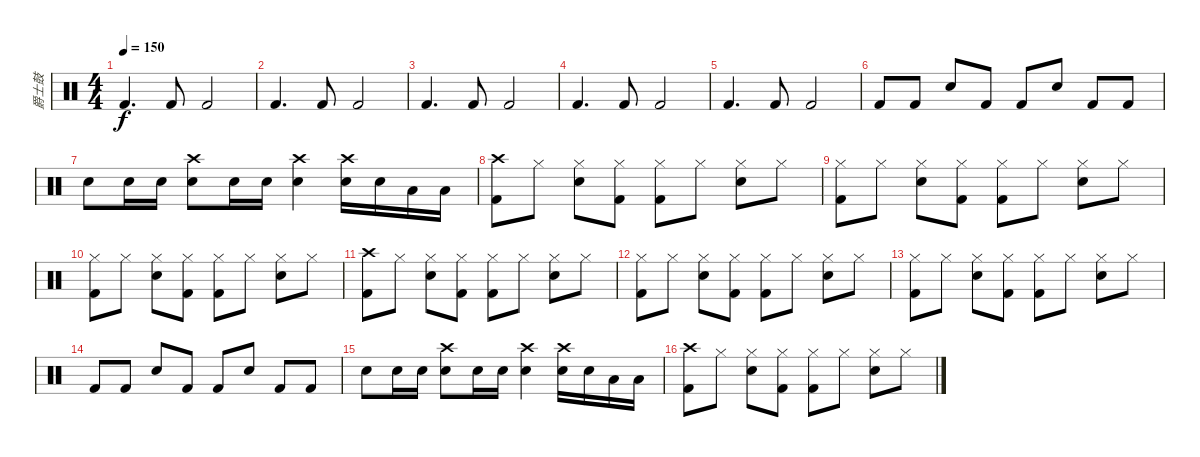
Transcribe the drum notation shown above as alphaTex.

\track ("爵士鼓" "爵士鼓") {instrument percussion}
\staff {score}
\articulation defaults
\ts (4 4)
\tempo 150
\clef neutral
\ks c "Kick (hit) 2".4{d dy f} "Kick (hit) 2".8 "Kick (hit) 2".2
|
"Kick (hit) 2".4{d} "Kick (hit) 2".8 "Kick (hit) 2".2 |
"Kick (hit) 2".4{d} "Kick (hit) 2".8 "Kick (hit) 2".2 |
"Kick (hit) 2".4{d} "Kick (hit) 2".8 "Kick (hit) 2".2 |
"Kick (hit) 2".4{d} "Kick (hit) 2".8 "Kick (hit) 2".2 |
"Kick (hit) 2".8 "Kick (hit) 2".8 "Electric Snare (hit)".8 "Kick (hit) 2".8 "Kick (hit) 2".8 "Electric Snare (hit)".8 "Kick (hit) 2".8 "Kick (hit) 2".8 |
"Electric Snare (hit)".8 "Electric Snare (hit)".16 "Electric Snare (hit)".16 ("Crash high (hit)" "Electric Snare (hit)").8 "Electric Snare (hit)".16 "Electric Snare (hit)".16 ("Crash high (hit)" "Electric Snare (hit)").4 ("Crash high (hit)" "Electric Snare (hit)").16 "Electric Snare (hit)".16 "Low Tom (hit)".16 "Low Tom (hit)".16 |
("Crash high (hit)" "Kick (hit) 2").8 "Hi-Hat (closed)".8 ("Hi-Hat (closed)" "Electric Snare (hit)").8 ("Hi-Hat (closed)" "Kick (hit) 2").8 ("Hi-Hat (closed)" "Kick (hit) 2").8 "Hi-Hat (closed)".8 ("Hi-Hat (closed)" "Electric Snare (hit)").8 "Hi-Hat (closed)".8 |
("Hi-Hat (closed)" "Kick (hit) 2").8 "Hi-Hat (closed)".8 ("Hi-Hat (closed)" "Electric Snare (hit)").8 ("Hi-Hat (closed)" "Kick (hit) 2").8 ("Hi-Hat (closed)" "Kick (hit) 2").8 "Hi-Hat (closed)".8 ("Hi-Hat (closed)" "Electric Snare (hit)").8 "Hi-Hat (closed)".8 |
("Hi-Hat (closed)" "Kick (hit) 2").8 "Hi-Hat (closed)".8 ("Hi-Hat (closed)" "Electric Snare (hit)").8 ("Hi-Hat (closed)" "Kick (hit) 2").8 ("Hi-Hat (closed)" "Kick (hit) 2").8 "Hi-Hat (closed)".8 ("Hi-Hat (closed)" "Electric Snare (hit)").8 "Hi-Hat (closed)".8 |
("Crash high (hit)" "Kick (hit) 2").8 "Hi-Hat (closed)".8 ("Hi-Hat (closed)" "Electric Snare (hit)").8 ("Hi-Hat (closed)" "Kick (hit) 2").8 ("Hi-Hat (closed)" "Kick (hit) 2").8 "Hi-Hat (closed)".8 ("Hi-Hat (closed)" "Electric Snare (hit)").8 "Hi-Hat (closed)".8 |
("Hi-Hat (closed)" "Kick (hit) 2").8 "Hi-Hat (closed)".8 ("Hi-Hat (closed)" "Electric Snare (hit)").8 ("Hi-Hat (closed)" "Kick (hit) 2").8 ("Hi-Hat (closed)" "Kick (hit) 2").8 "Hi-Hat (closed)".8 ("Hi-Hat (closed)" "Electric Snare (hit)").8 "Hi-Hat (closed)".8 |
("Hi-Hat (closed)" "Kick (hit) 2").8 "Hi-Hat (closed)".8 ("Hi-Hat (closed)" "Electric Snare (hit)").8 ("Hi-Hat (closed)" "Kick (hit) 2").8 ("Hi-Hat (closed)" "Kick (hit) 2").8 "Hi-Hat (closed)".8 ("Hi-Hat (closed)" "Electric Snare (hit)").8 "Hi-Hat (closed)".8 |
"Kick (hit) 2".8 "Kick (hit) 2".8 "Electric Snare (hit)".8 "Kick (hit) 2".8 "Kick (hit) 2".8 "Electric Snare (hit)".8 "Kick (hit) 2".8 "Kick (hit) 2".8 |
"Electric Snare (hit)".8 "Electric Snare (hit)".16 "Electric Snare (hit)".16 ("Crash high (hit)" "Electric Snare (hit)").8 "Electric Snare (hit)".16 "Electric Snare (hit)".16 ("Crash high (hit)" "Electric Snare (hit)").4 ("Crash high (hit)" "Electric Snare (hit)").16 "Electric Snare (hit)".16 "Low Tom (hit)".16 "Low Tom (hit)".16 |
("Crash high (hit)" "Kick (hit) 2").8 "Hi-Hat (closed)".8 ("Hi-Hat (closed)" "Electric Snare (hit)").8 ("Hi-Hat (closed)" "Kick (hit) 2").8 ("Hi-Hat (closed)" "Kick (hit) 2").8 "Hi-Hat (closed)".8 ("Hi-Hat (closed)" "Electric Snare (hit)").8 "Hi-Hat (closed)".8
